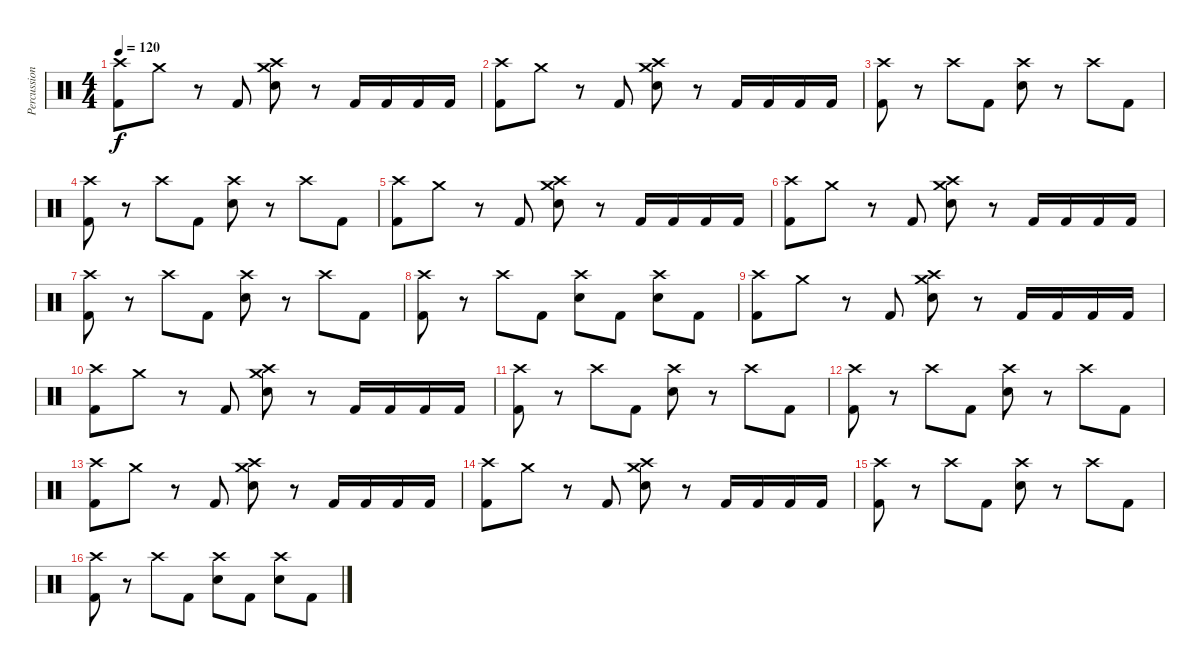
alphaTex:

\track ("Percussion" "Percussion") {instrument percussion}
\staff {score}
\articulation defaults
\ts (4 4)
\tempo 120
\clef neutral
\ks c
("Kick (hit) 2" "Crash high (hit)").8{dy f} "Crash medium (hit)".8 r.8 "Kick (hit) 2".8 ("Electric Snare (hit)" "Crash medium (hit)" "Crash high (hit)").8 r.8 "Kick (hit) 2".16 "Kick (hit) 2".16 "Kick (hit) 2".16 "Kick (hit) 2".16 |
("Kick (hit) 2" "Crash high (hit)").8 "Crash medium (hit)".8 r.8 "Kick (hit) 2".8 ("Electric Snare (hit)" "Crash medium (hit)" "Crash high (hit)").8 r.8 "Kick (hit) 2".16 "Kick (hit) 2".16 "Kick (hit) 2".16 "Kick (hit) 2".16 |
("Kick (hit) 2" "Crash high (hit)").8 r.8 "Crash high (hit)".8 "Kick (hit) 2".8 ("Electric Snare (hit)" "Crash high (hit)").8 r.8 "Crash high (hit)".8 "Kick (hit) 2".8 |
("Kick (hit) 2" "Crash high (hit)").8 r.8 "Crash high (hit)".8 "Kick (hit) 2".8 ("Electric Snare (hit)" "Crash high (hit)").8 r.8 "Crash high (hit)".8 "Kick (hit) 2".8 |
("Kick (hit) 2" "Crash high (hit)").8 "Crash medium (hit)".8 r.8 "Kick (hit) 2".8 ("Electric Snare (hit)" "Crash medium (hit)" "Crash high (hit)").8 r.8 "Kick (hit) 2".16 "Kick (hit) 2".16 "Kick (hit) 2".16 "Kick (hit) 2".16 |
("Kick (hit) 2" "Crash high (hit)").8 "Crash medium (hit)".8 r.8 "Kick (hit) 2".8 ("Electric Snare (hit)" "Crash medium (hit)" "Crash high (hit)").8 r.8 "Kick (hit) 2".16 "Kick (hit) 2".16 "Kick (hit) 2".16 "Kick (hit) 2".16 |
("Kick (hit) 2" "Crash high (hit)").8 r.8 "Crash high (hit)".8 "Kick (hit) 2".8 ("Electric Snare (hit)" "Crash high (hit)").8 r.8 "Crash high (hit)".8 "Kick (hit) 2".8 |
("Kick (hit) 2" "Crash high (hit)").8 r.8 "Crash high (hit)".8 "Kick (hit) 2".8 ("Electric Snare (hit)" "Crash high (hit)").8 "Kick (hit) 2".8 ("Electric Snare (hit)" "Crash high (hit)").8 "Kick (hit) 2".8 |
("Kick (hit) 2" "Crash high (hit)").8 "Crash medium (hit)".8 r.8 "Kick (hit) 2".8 ("Electric Snare (hit)" "Crash medium (hit)" "Crash high (hit)").8 r.8 "Kick (hit) 2".16 "Kick (hit) 2".16 "Kick (hit) 2".16 "Kick (hit) 2".16 |
("Kick (hit) 2" "Crash high (hit)").8 "Crash medium (hit)".8 r.8 "Kick (hit) 2".8 ("Electric Snare (hit)" "Crash medium (hit)" "Crash high (hit)").8 r.8 "Kick (hit) 2".16 "Kick (hit) 2".16 "Kick (hit) 2".16 "Kick (hit) 2".16 |
("Kick (hit) 2" "Crash high (hit)").8 r.8 "Crash high (hit)".8 "Kick (hit) 2".8 ("Electric Snare (hit)" "Crash high (hit)").8 r.8 "Crash high (hit)".8 "Kick (hit) 2".8 |
("Kick (hit) 2" "Crash high (hit)").8 r.8 "Crash high (hit)".8 "Kick (hit) 2".8 ("Electric Snare (hit)" "Crash high (hit)").8 r.8 "Crash high (hit)".8 "Kick (hit) 2".8 |
("Kick (hit) 2" "Crash high (hit)").8 "Crash medium (hit)".8 r.8 "Kick (hit) 2".8 ("Electric Snare (hit)" "Crash medium (hit)" "Crash high (hit)").8 r.8 "Kick (hit) 2".16 "Kick (hit) 2".16 "Kick (hit) 2".16 "Kick (hit) 2".16 |
("Kick (hit) 2" "Crash high (hit)").8 "Crash medium (hit)".8 r.8 "Kick (hit) 2".8 ("Electric Snare (hit)" "Crash medium (hit)" "Crash high (hit)").8 r.8 "Kick (hit) 2".16 "Kick (hit) 2".16 "Kick (hit) 2".16 "Kick (hit) 2".16 |
("Kick (hit) 2" "Crash high (hit)").8 r.8 "Crash high (hit)".8 "Kick (hit) 2".8 ("Electric Snare (hit)" "Crash high (hit)").8 r.8 "Crash high (hit)".8 "Kick (hit) 2".8 |
("Kick (hit) 2" "Crash high (hit)").8 r.8 "Crash high (hit)".8 "Kick (hit) 2".8 ("Electric Snare (hit)" "Crash high (hit)").8 "Kick (hit) 2".8 ("Electric Snare (hit)" "Crash high (hit)").8 "Kick (hit) 2".8
